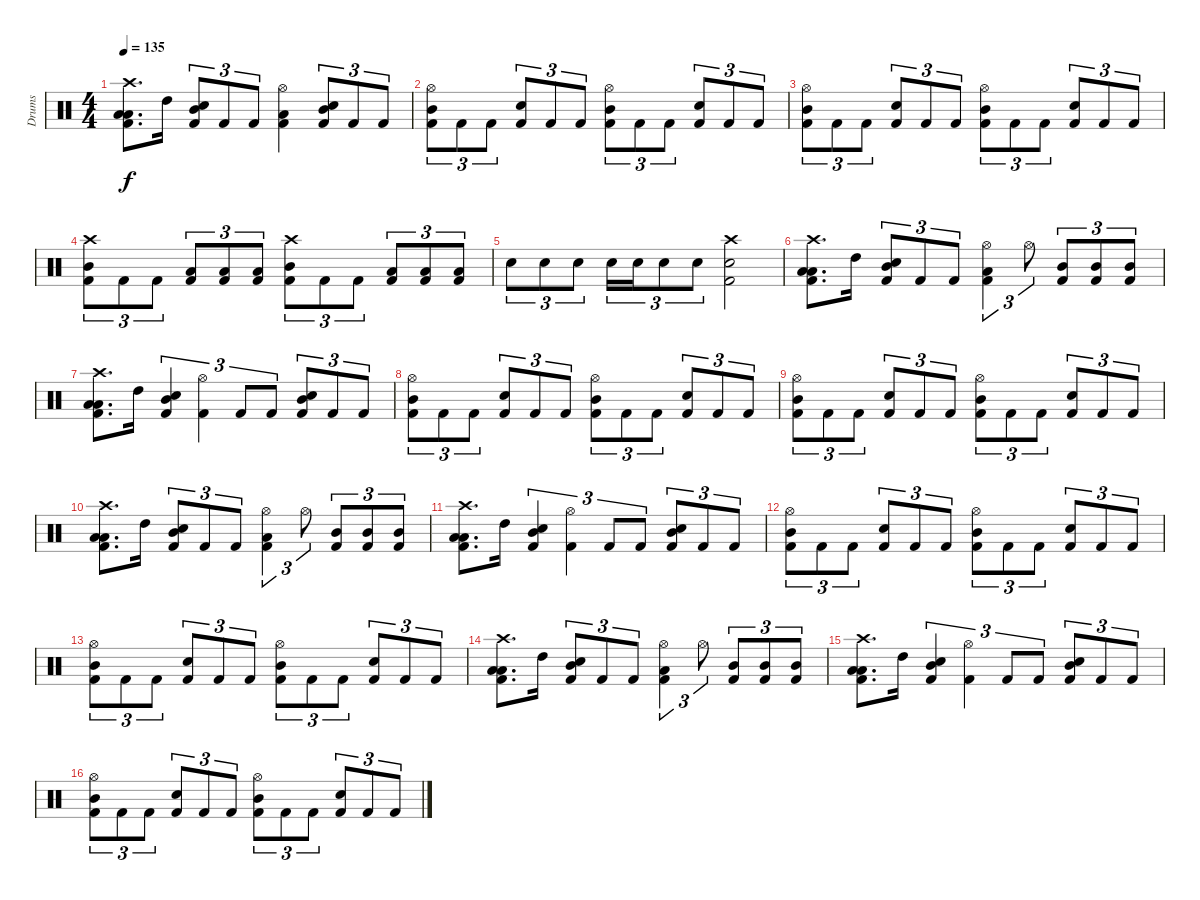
\track ("Drums" "Drums") {instrument percussion}
\staff {score}
\articulation defaults
\ts (4 4)
\tempo 135
\clef neutral
\ks c
("Crash high (hit)" "Low Tom (hit)" "Low Tom (hit)" "Kick (hit) 2").8{d dy f} "High Tom (hit)".16 ("Mid Tom (hit)" "Snare (hit) 2" "Kick (hit) 2").8{tu (3 2)} "Kick (hit) 2".8{tu (3 2)} "Kick (hit) 2".8{tu (3 2)} ("Hi-Hat (open)" "Low Tom (hit)" "Kick (hit) 2").4 ("Mid Tom (hit)" "Snare (hit) 2" "Kick (hit) 2").8{tu (3 2)} "Kick (hit) 2".8{tu (3 2)} "Kick (hit) 2".8{tu (3 2)} |
("Hi-Hat (open)" "Mid Tom (hit)" "Kick (hit) 2").8{tu (3 2)} "Kick (hit) 2".8{tu (3 2)} "Kick (hit) 2".8{tu (3 2)} ("Snare (hit) 2" "Kick (hit) 2").8{tu (3 2)} "Kick (hit) 2".8{tu (3 2)} "Kick (hit) 2".8{tu (3 2)} ("Hi-Hat (open)" "Mid Tom (hit)" "Kick (hit) 2").8{tu (3 2)} "Kick (hit) 2".8{tu (3 2)} "Kick (hit) 2".8{tu (3 2)} ("Snare (hit) 2" "Kick (hit) 2").8{tu (3 2)} "Kick (hit) 2".8{tu (3 2)} "Kick (hit) 2".8{tu (3 2)} |
("Hi-Hat (open)" "Mid Tom (hit)" "Kick (hit) 2").8{tu (3 2)} "Kick (hit) 2".8{tu (3 2)} "Kick (hit) 2".8{tu (3 2)} ("Snare (hit) 2" "Kick (hit) 2").8{tu (3 2)} "Kick (hit) 2".8{tu (3 2)} "Kick (hit) 2".8{tu (3 2)} ("Hi-Hat (open)" "Mid Tom (hit)" "Kick (hit) 2").8{tu (3 2)} "Kick (hit) 2".8{tu (3 2)} "Kick (hit) 2".8{tu (3 2)} ("Snare (hit) 2" "Kick (hit) 2").8{tu (3 2)} "Kick (hit) 2".8{tu (3 2)} "Kick (hit) 2".8{tu (3 2)} |
("Crash high (hit)" "Mid Tom (hit)" "Kick (hit) 2").8{tu (3 2)} "Kick (hit) 2".8{tu (3 2)} "Kick (hit) 2".8{tu (3 2)} ("Low Tom (hit)" "Kick (hit) 2").8{tu (3 2)} ("Low Tom (hit)" "Kick (hit) 2").8{tu (3 2)} ("Low Tom (hit)" "Kick (hit) 2").8{tu (3 2)} ("Crash high (hit)" "Mid Tom (hit)" "Kick (hit) 2").8{tu (3 2)} "Kick (hit) 2".8{tu (3 2)} "Kick (hit) 2".8{tu (3 2)} ("Low Tom (hit)" "Kick (hit) 2").8{tu (3 2)} ("Low Tom (hit)" "Kick (hit) 2").8{tu (3 2)} ("Low Tom (hit)" "Kick (hit) 2").8{tu (3 2)} |
"Snare (hit) 2".8{tu (3 2)} "Snare (hit) 2".8{tu (3 2)} "Snare (hit) 2".8{tu (3 2)} "Snare (hit) 2".16{tu (3 2)} "Snare (hit) 2".16{tu (3 2)} "Snare (hit) 2".8{tu (3 2)} "Snare (hit) 2".8{tu (3 2)} ("Crash high (hit)" "Snare (hit) 2" "Kick (hit) 2").2 |
("Crash high (hit)" "Low Tom (hit)" "Low Tom (hit)" "Kick (hit) 2").8{d} "High Tom (hit)".16 ("Mid Tom (hit)" "Snare (hit) 2" "Kick (hit) 2").8{tu (3 2)} "Kick (hit) 2".8{tu (3 2)} "Kick (hit) 2".8{tu (3 2)} ("Hi-Hat (open)" "Low Tom (hit)" "Kick (hit) 2").4{tu (3 2)} "Hi-Hat (open)".8{tu (3 2)} ("Mid Tom (hit)" "Kick (hit) 2").8{tu (3 2)} ("Mid Tom (hit)" "Kick (hit) 2").8{tu (3 2)} ("Mid Tom (hit)" "Kick (hit) 2").8{tu (3 2)} |
("Crash high (hit)" "Low Tom (hit)" "Low Tom (hit)" "Kick (hit) 2").8{d} "High Tom (hit)".16 ("Mid Tom (hit)" "Snare (hit) 2" "Kick (hit) 2").4{tu (3 2)} ("Hi-Hat (open)" "Kick (hit) 2").4{tu (3 2)} "Kick (hit) 2".8{tu (3 2)} "Kick (hit) 2".8{tu (3 2)} ("Mid Tom (hit)" "Snare (hit) 2" "Kick (hit) 2").8{tu (3 2)} "Kick (hit) 2".8{tu (3 2)} "Kick (hit) 2".8{tu (3 2)} |
("Hi-Hat (open)" "Mid Tom (hit)" "Kick (hit) 2").8{tu (3 2)} "Kick (hit) 2".8{tu (3 2)} "Kick (hit) 2".8{tu (3 2)} ("Snare (hit) 2" "Kick (hit) 2").8{tu (3 2)} "Kick (hit) 2".8{tu (3 2)} "Kick (hit) 2".8{tu (3 2)} ("Hi-Hat (open)" "Mid Tom (hit)" "Kick (hit) 2").8{tu (3 2)} "Kick (hit) 2".8{tu (3 2)} "Kick (hit) 2".8{tu (3 2)} ("Snare (hit) 2" "Kick (hit) 2").8{tu (3 2)} "Kick (hit) 2".8{tu (3 2)} "Kick (hit) 2".8{tu (3 2)} |
("Hi-Hat (open)" "Mid Tom (hit)" "Kick (hit) 2").8{tu (3 2)} "Kick (hit) 2".8{tu (3 2)} "Kick (hit) 2".8{tu (3 2)} ("Snare (hit) 2" "Kick (hit) 2").8{tu (3 2)} "Kick (hit) 2".8{tu (3 2)} "Kick (hit) 2".8{tu (3 2)} ("Hi-Hat (open)" "Mid Tom (hit)" "Kick (hit) 2").8{tu (3 2)} "Kick (hit) 2".8{tu (3 2)} "Kick (hit) 2".8{tu (3 2)} ("Snare (hit) 2" "Kick (hit) 2").8{tu (3 2)} "Kick (hit) 2".8{tu (3 2)} "Kick (hit) 2".8{tu (3 2)} |
("Crash high (hit)" "Low Tom (hit)" "Low Tom (hit)" "Kick (hit) 2").8{d} "High Tom (hit)".16 ("Mid Tom (hit)" "Snare (hit) 2" "Kick (hit) 2").8{tu (3 2)} "Kick (hit) 2".8{tu (3 2)} "Kick (hit) 2".8{tu (3 2)} ("Hi-Hat (open)" "Low Tom (hit)" "Kick (hit) 2").4{tu (3 2)} "Hi-Hat (open)".8{tu (3 2)} ("Mid Tom (hit)" "Kick (hit) 2").8{tu (3 2)} ("Mid Tom (hit)" "Kick (hit) 2").8{tu (3 2)} ("Mid Tom (hit)" "Kick (hit) 2").8{tu (3 2)} |
("Crash high (hit)" "Low Tom (hit)" "Low Tom (hit)" "Kick (hit) 2").8{d} "High Tom (hit)".16 ("Mid Tom (hit)" "Snare (hit) 2" "Kick (hit) 2").4{tu (3 2)} ("Hi-Hat (open)" "Kick (hit) 2").4{tu (3 2)} "Kick (hit) 2".8{tu (3 2)} "Kick (hit) 2".8{tu (3 2)} ("Mid Tom (hit)" "Snare (hit) 2" "Kick (hit) 2").8{tu (3 2)} "Kick (hit) 2".8{tu (3 2)} "Kick (hit) 2".8{tu (3 2)} |
("Hi-Hat (open)" "Mid Tom (hit)" "Kick (hit) 2").8{tu (3 2)} "Kick (hit) 2".8{tu (3 2)} "Kick (hit) 2".8{tu (3 2)} ("Snare (hit) 2" "Kick (hit) 2").8{tu (3 2)} "Kick (hit) 2".8{tu (3 2)} "Kick (hit) 2".8{tu (3 2)} ("Hi-Hat (open)" "Mid Tom (hit)" "Kick (hit) 2").8{tu (3 2)} "Kick (hit) 2".8{tu (3 2)} "Kick (hit) 2".8{tu (3 2)} ("Snare (hit) 2" "Kick (hit) 2").8{tu (3 2)} "Kick (hit) 2".8{tu (3 2)} "Kick (hit) 2".8{tu (3 2)} |
("Hi-Hat (open)" "Mid Tom (hit)" "Kick (hit) 2").8{tu (3 2)} "Kick (hit) 2".8{tu (3 2)} "Kick (hit) 2".8{tu (3 2)} ("Snare (hit) 2" "Kick (hit) 2").8{tu (3 2)} "Kick (hit) 2".8{tu (3 2)} "Kick (hit) 2".8{tu (3 2)} ("Hi-Hat (open)" "Mid Tom (hit)" "Kick (hit) 2").8{tu (3 2)} "Kick (hit) 2".8{tu (3 2)} "Kick (hit) 2".8{tu (3 2)} ("Snare (hit) 2" "Kick (hit) 2").8{tu (3 2)} "Kick (hit) 2".8{tu (3 2)} "Kick (hit) 2".8{tu (3 2)} |
("Crash high (hit)" "Low Tom (hit)" "Low Tom (hit)" "Kick (hit) 2").8{d} "High Tom (hit)".16 ("Mid Tom (hit)" "Snare (hit) 2" "Kick (hit) 2").8{tu (3 2)} "Kick (hit) 2".8{tu (3 2)} "Kick (hit) 2".8{tu (3 2)} ("Hi-Hat (open)" "Low Tom (hit)" "Kick (hit) 2").4{tu (3 2)} "Hi-Hat (open)".8{tu (3 2)} ("Mid Tom (hit)" "Kick (hit) 2").8{tu (3 2)} ("Mid Tom (hit)" "Kick (hit) 2").8{tu (3 2)} ("Mid Tom (hit)" "Kick (hit) 2").8{tu (3 2)} |
("Crash high (hit)" "Low Tom (hit)" "Low Tom (hit)" "Kick (hit) 2").8{d} "High Tom (hit)".16 ("Mid Tom (hit)" "Snare (hit) 2" "Kick (hit) 2").4{tu (3 2)} ("Hi-Hat (open)" "Kick (hit) 2").4{tu (3 2)} "Kick (hit) 2".8{tu (3 2)} "Kick (hit) 2".8{tu (3 2)} ("Mid Tom (hit)" "Snare (hit) 2" "Kick (hit) 2").8{tu (3 2)} "Kick (hit) 2".8{tu (3 2)} "Kick (hit) 2".8{tu (3 2)} |
("Hi-Hat (open)" "Mid Tom (hit)" "Kick (hit) 2").8{tu (3 2)} "Kick (hit) 2".8{tu (3 2)} "Kick (hit) 2".8{tu (3 2)} ("Snare (hit) 2" "Kick (hit) 2").8{tu (3 2)} "Kick (hit) 2".8{tu (3 2)} "Kick (hit) 2".8{tu (3 2)} ("Hi-Hat (open)" "Mid Tom (hit)" "Kick (hit) 2").8{tu (3 2)} "Kick (hit) 2".8{tu (3 2)} "Kick (hit) 2".8{tu (3 2)} ("Snare (hit) 2" "Kick (hit) 2").8{tu (3 2)} "Kick (hit) 2".8{tu (3 2)} "Kick (hit) 2".8{tu (3 2)}
